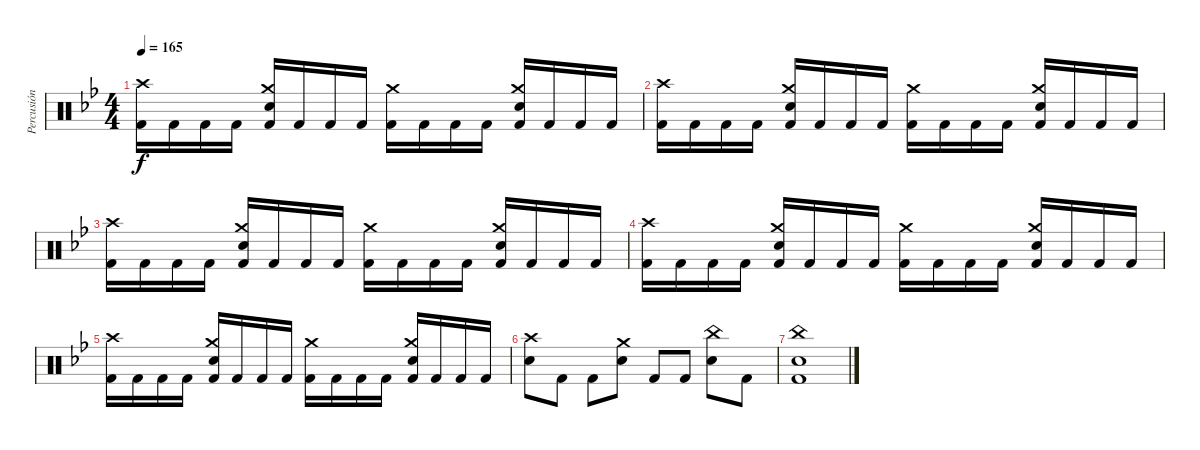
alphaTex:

\track ("Percusión" "Percusión") {instrument percussion}
\staff {score}
\articulation defaults
\ts (4 4)
\tempo 165
\clef neutral
\ks bb
("Crash high (hit)" "Kick (hit) 2").16{dy f} "Kick (hit) 2".16 "Kick (hit) 2".16 "Kick (hit) 2".16 ("Crash medium (hit)" "Electric Snare (hit)" "Kick (hit) 2").16 "Kick (hit) 2".16 "Kick (hit) 2".16 "Kick (hit) 2".16 ("Crash medium (hit)" "Kick (hit) 2").16 "Kick (hit) 2".16 "Kick (hit) 2".16 "Kick (hit) 2".16 ("Crash medium (hit)" "Electric Snare (hit)" "Kick (hit) 2").16 "Kick (hit) 2".16 "Kick (hit) 2".16 "Kick (hit) 2".16 |
("Crash high (hit)" "Kick (hit) 2").16 "Kick (hit) 2".16 "Kick (hit) 2".16 "Kick (hit) 2".16 ("Crash medium (hit)" "Electric Snare (hit)" "Kick (hit) 2").16 "Kick (hit) 2".16 "Kick (hit) 2".16 "Kick (hit) 2".16 ("Crash medium (hit)" "Kick (hit) 2").16 "Kick (hit) 2".16 "Kick (hit) 2".16 "Kick (hit) 2".16 ("Crash medium (hit)" "Electric Snare (hit)" "Kick (hit) 2").16 "Kick (hit) 2".16 "Kick (hit) 2".16 "Kick (hit) 2".16 |
("Crash high (hit)" "Kick (hit) 2").16 "Kick (hit) 2".16 "Kick (hit) 2".16 "Kick (hit) 2".16 ("Crash medium (hit)" "Electric Snare (hit)" "Kick (hit) 2").16 "Kick (hit) 2".16 "Kick (hit) 2".16 "Kick (hit) 2".16 ("Crash medium (hit)" "Kick (hit) 2").16 "Kick (hit) 2".16 "Kick (hit) 2".16 "Kick (hit) 2".16 ("Crash medium (hit)" "Electric Snare (hit)" "Kick (hit) 2").16 "Kick (hit) 2".16 "Kick (hit) 2".16 "Kick (hit) 2".16 |
("Crash high (hit)" "Kick (hit) 2").16 "Kick (hit) 2".16 "Kick (hit) 2".16 "Kick (hit) 2".16 ("Crash medium (hit)" "Electric Snare (hit)" "Kick (hit) 2").16 "Kick (hit) 2".16 "Kick (hit) 2".16 "Kick (hit) 2".16 ("Crash medium (hit)" "Kick (hit) 2").16 "Kick (hit) 2".16 "Kick (hit) 2".16 "Kick (hit) 2".16 ("Crash medium (hit)" "Electric Snare (hit)" "Kick (hit) 2").16 "Kick (hit) 2".16 "Kick (hit) 2".16 "Kick (hit) 2".16 |
("Crash high (hit)" "Kick (hit) 2").16 "Kick (hit) 2".16 "Kick (hit) 2".16 "Kick (hit) 2".16 ("Crash medium (hit)" "Electric Snare (hit)" "Kick (hit) 2").16 "Kick (hit) 2".16 "Kick (hit) 2".16 "Kick (hit) 2".16 ("Crash medium (hit)" "Kick (hit) 2").16 "Kick (hit) 2".16 "Kick (hit) 2".16 "Kick (hit) 2".16 ("Crash medium (hit)" "Electric Snare (hit)" "Kick (hit) 2").16 "Kick (hit) 2".16 "Kick (hit) 2".16 "Kick (hit) 2".16 |
("Crash high (hit)" "Electric Snare (hit)").8 "Kick (hit) 2".8 "Kick (hit) 2".8 ("Crash medium (hit)" "Electric Snare (hit)").8 "Kick (hit) 2".8 "Kick (hit) 2".8 ("China (hit)" "Electric Snare (hit)").8 "Kick (hit) 2".8 |
("China (hit)" "Electric Snare (hit)" "Kick (hit) 2").1
